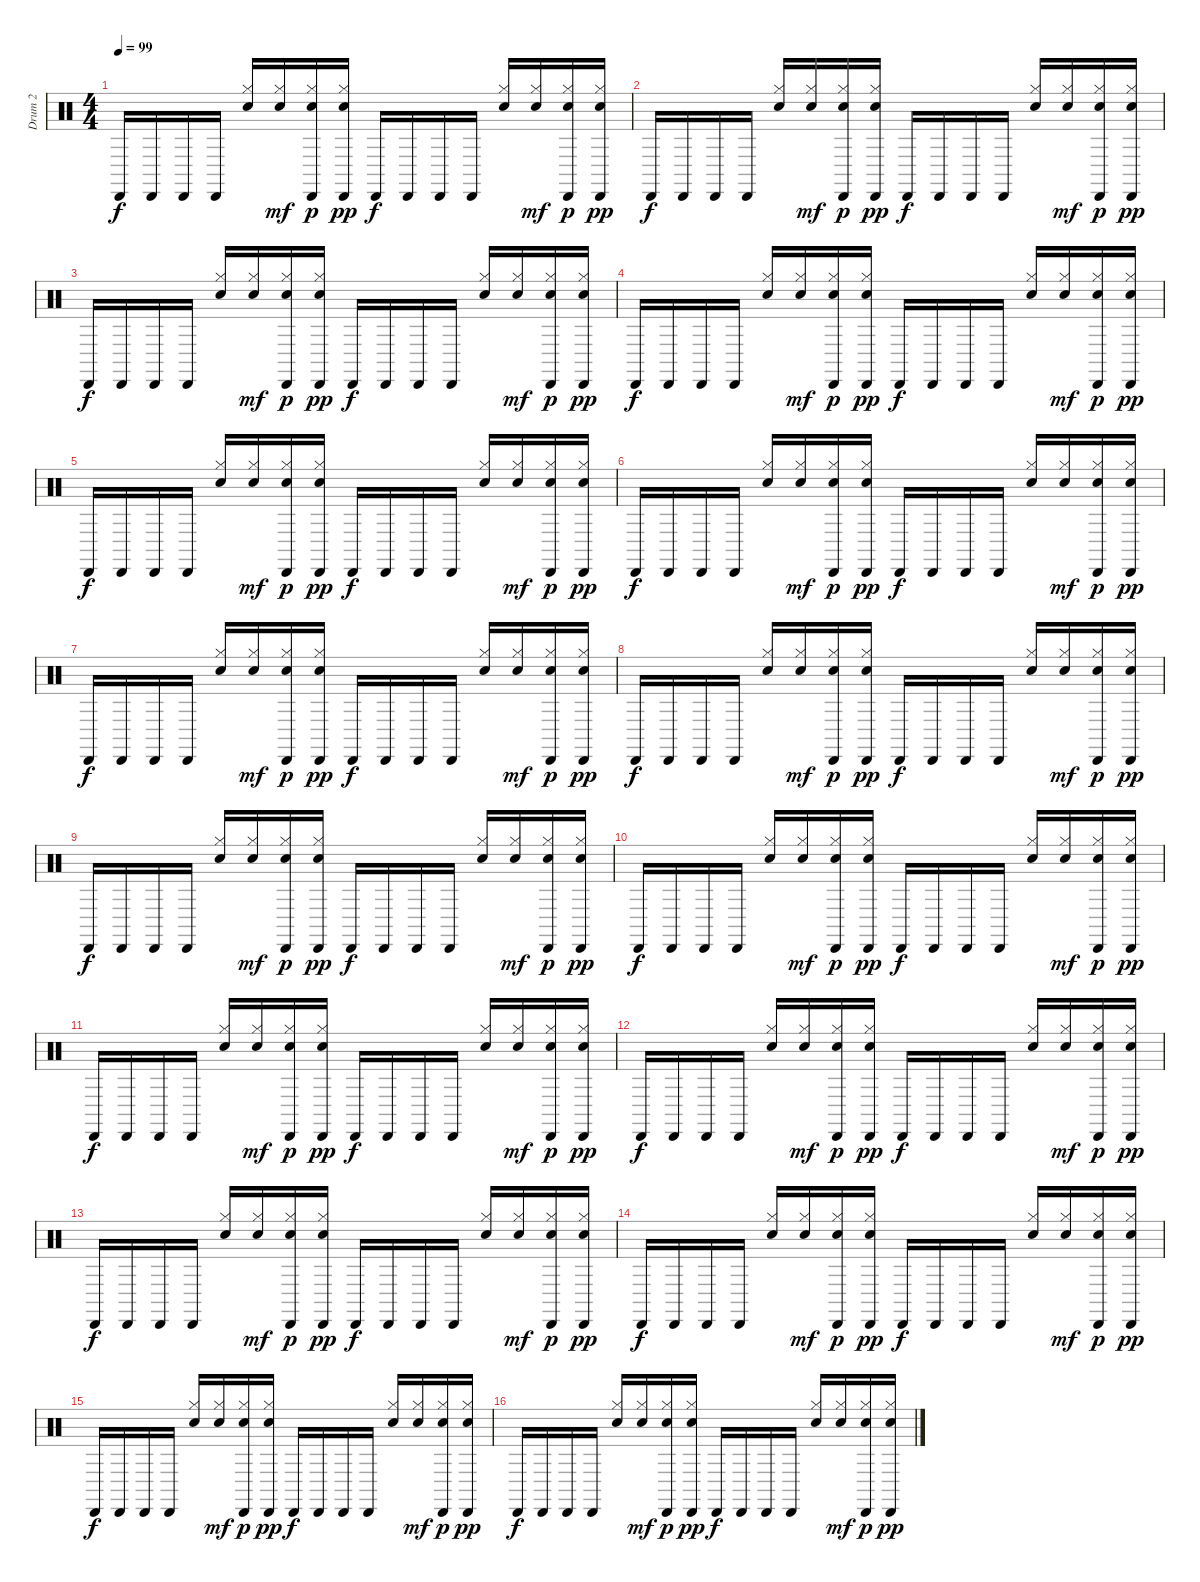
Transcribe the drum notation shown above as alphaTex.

\track ("Drum 2" "Drum 2") {instrument percussion}
\staff {score}
\articulation defaults
\ts (4 4)
\tempo 99
\clef neutral
\ks c "Cabasa (hit)".16{dy f} "Cabasa (hit)".16 "Cabasa (hit)".16 "Cabasa (hit)".16
("Electric Snare (hit)" "Hi-Hat (closed)").16 ("Electric Snare (hit)" "Hi-Hat (closed)").16{dy mf} ("Electric Snare (hit)" "Hi-Hat (closed)" "Cabasa (hit)").16{dy p} ("Electric Snare (hit)" "Hi-Hat (closed)" "Cabasa (hit)").16{dy pp} "Cabasa (hit)".16{dy f} "Cabasa (hit)".16 "Cabasa (hit)".16 "Cabasa (hit)".16 ("Electric Snare (hit)" "Hi-Hat (closed)").16 ("Electric Snare (hit)" "Hi-Hat (closed)").16{dy mf} ("Electric Snare (hit)" "Hi-Hat (closed)" "Cabasa (hit)").16{dy p} ("Electric Snare (hit)" "Hi-Hat (closed)" "Cabasa (hit)").16{dy pp} |
"Cabasa (hit)".16{dy f} "Cabasa (hit)".16 "Cabasa (hit)".16 "Cabasa (hit)".16 ("Electric Snare (hit)" "Hi-Hat (closed)").16 ("Electric Snare (hit)" "Hi-Hat (closed)").16{dy mf} ("Electric Snare (hit)" "Hi-Hat (closed)" "Cabasa (hit)").16{dy p} ("Electric Snare (hit)" "Hi-Hat (closed)" "Cabasa (hit)").16{dy pp} "Cabasa (hit)".16{dy f} "Cabasa (hit)".16 "Cabasa (hit)".16 "Cabasa (hit)".16 ("Electric Snare (hit)" "Hi-Hat (closed)").16 ("Electric Snare (hit)" "Hi-Hat (closed)").16{dy mf} ("Electric Snare (hit)" "Hi-Hat (closed)" "Cabasa (hit)").16{dy p} ("Electric Snare (hit)" "Hi-Hat (closed)" "Cabasa (hit)").16{dy pp} |
"Cabasa (hit)".16{dy f} "Cabasa (hit)".16 "Cabasa (hit)".16 "Cabasa (hit)".16 ("Electric Snare (hit)" "Hi-Hat (closed)").16 ("Electric Snare (hit)" "Hi-Hat (closed)").16{dy mf} ("Electric Snare (hit)" "Hi-Hat (closed)" "Cabasa (hit)").16{dy p} ("Electric Snare (hit)" "Hi-Hat (closed)" "Cabasa (hit)").16{dy pp} "Cabasa (hit)".16{dy f} "Cabasa (hit)".16 "Cabasa (hit)".16 "Cabasa (hit)".16 ("Electric Snare (hit)" "Hi-Hat (closed)").16 ("Electric Snare (hit)" "Hi-Hat (closed)").16{dy mf} ("Electric Snare (hit)" "Hi-Hat (closed)" "Cabasa (hit)").16{dy p} ("Electric Snare (hit)" "Hi-Hat (closed)" "Cabasa (hit)").16{dy pp} |
"Cabasa (hit)".16{dy f} "Cabasa (hit)".16 "Cabasa (hit)".16 "Cabasa (hit)".16 ("Electric Snare (hit)" "Hi-Hat (closed)").16 ("Electric Snare (hit)" "Hi-Hat (closed)").16{dy mf} ("Electric Snare (hit)" "Hi-Hat (closed)" "Cabasa (hit)").16{dy p} ("Electric Snare (hit)" "Hi-Hat (closed)" "Cabasa (hit)").16{dy pp} "Cabasa (hit)".16{dy f} "Cabasa (hit)".16 "Cabasa (hit)".16 "Cabasa (hit)".16 ("Electric Snare (hit)" "Hi-Hat (closed)").16 ("Electric Snare (hit)" "Hi-Hat (closed)").16{dy mf} ("Electric Snare (hit)" "Hi-Hat (closed)" "Cabasa (hit)").16{dy p} ("Electric Snare (hit)" "Hi-Hat (closed)" "Cabasa (hit)").16{dy pp} |
"Cabasa (hit)".16{dy f} "Cabasa (hit)".16 "Cabasa (hit)".16 "Cabasa (hit)".16 ("Electric Snare (hit)" "Hi-Hat (closed)").16 ("Electric Snare (hit)" "Hi-Hat (closed)").16{dy mf} ("Electric Snare (hit)" "Hi-Hat (closed)" "Cabasa (hit)").16{dy p} ("Electric Snare (hit)" "Hi-Hat (closed)" "Cabasa (hit)").16{dy pp} "Cabasa (hit)".16{dy f} "Cabasa (hit)".16 "Cabasa (hit)".16 "Cabasa (hit)".16 ("Electric Snare (hit)" "Hi-Hat (closed)").16 ("Electric Snare (hit)" "Hi-Hat (closed)").16{dy mf} ("Electric Snare (hit)" "Hi-Hat (closed)" "Cabasa (hit)").16{dy p} ("Electric Snare (hit)" "Hi-Hat (closed)" "Cabasa (hit)").16{dy pp} |
"Cabasa (hit)".16{dy f} "Cabasa (hit)".16 "Cabasa (hit)".16 "Cabasa (hit)".16 ("Electric Snare (hit)" "Hi-Hat (closed)").16 ("Electric Snare (hit)" "Hi-Hat (closed)").16{dy mf} ("Electric Snare (hit)" "Hi-Hat (closed)" "Cabasa (hit)").16{dy p} ("Electric Snare (hit)" "Hi-Hat (closed)" "Cabasa (hit)").16{dy pp} "Cabasa (hit)".16{dy f} "Cabasa (hit)".16 "Cabasa (hit)".16 "Cabasa (hit)".16 ("Electric Snare (hit)" "Hi-Hat (closed)").16 ("Electric Snare (hit)" "Hi-Hat (closed)").16{dy mf} ("Electric Snare (hit)" "Hi-Hat (closed)" "Cabasa (hit)").16{dy p} ("Electric Snare (hit)" "Hi-Hat (closed)" "Cabasa (hit)").16{dy pp} |
"Cabasa (hit)".16{dy f} "Cabasa (hit)".16 "Cabasa (hit)".16 "Cabasa (hit)".16 ("Electric Snare (hit)" "Hi-Hat (closed)").16 ("Electric Snare (hit)" "Hi-Hat (closed)").16{dy mf} ("Electric Snare (hit)" "Hi-Hat (closed)" "Cabasa (hit)").16{dy p} ("Electric Snare (hit)" "Hi-Hat (closed)" "Cabasa (hit)").16{dy pp} "Cabasa (hit)".16{dy f} "Cabasa (hit)".16 "Cabasa (hit)".16 "Cabasa (hit)".16 ("Electric Snare (hit)" "Hi-Hat (closed)").16 ("Electric Snare (hit)" "Hi-Hat (closed)").16{dy mf} ("Electric Snare (hit)" "Hi-Hat (closed)" "Cabasa (hit)").16{dy p} ("Electric Snare (hit)" "Hi-Hat (closed)" "Cabasa (hit)").16{dy pp} |
"Cabasa (hit)".16{dy f} "Cabasa (hit)".16 "Cabasa (hit)".16 "Cabasa (hit)".16 ("Electric Snare (hit)" "Hi-Hat (closed)").16 ("Electric Snare (hit)" "Hi-Hat (closed)").16{dy mf} ("Electric Snare (hit)" "Hi-Hat (closed)" "Cabasa (hit)").16{dy p} ("Electric Snare (hit)" "Hi-Hat (closed)" "Cabasa (hit)").16{dy pp} "Cabasa (hit)".16{dy f} "Cabasa (hit)".16 "Cabasa (hit)".16 "Cabasa (hit)".16 ("Electric Snare (hit)" "Hi-Hat (closed)").16 ("Electric Snare (hit)" "Hi-Hat (closed)").16{dy mf} ("Electric Snare (hit)" "Hi-Hat (closed)" "Cabasa (hit)").16{dy p} ("Electric Snare (hit)" "Hi-Hat (closed)" "Cabasa (hit)").16{dy pp} |
"Cabasa (hit)".16{dy f} "Cabasa (hit)".16 "Cabasa (hit)".16 "Cabasa (hit)".16 ("Electric Snare (hit)" "Hi-Hat (closed)").16 ("Electric Snare (hit)" "Hi-Hat (closed)").16{dy mf} ("Electric Snare (hit)" "Hi-Hat (closed)" "Cabasa (hit)").16{dy p} ("Electric Snare (hit)" "Hi-Hat (closed)" "Cabasa (hit)").16{dy pp} "Cabasa (hit)".16{dy f} "Cabasa (hit)".16 "Cabasa (hit)".16 "Cabasa (hit)".16 ("Electric Snare (hit)" "Hi-Hat (closed)").16 ("Electric Snare (hit)" "Hi-Hat (closed)").16{dy mf} ("Electric Snare (hit)" "Hi-Hat (closed)" "Cabasa (hit)").16{dy p} ("Electric Snare (hit)" "Hi-Hat (closed)" "Cabasa (hit)").16{dy pp} |
"Cabasa (hit)".16{dy f} "Cabasa (hit)".16 "Cabasa (hit)".16 "Cabasa (hit)".16{volume 15} ("Electric Snare (hit)" "Hi-Hat (closed)").16 ("Electric Snare (hit)" "Hi-Hat (closed)").16{dy mf} ("Electric Snare (hit)" "Hi-Hat (closed)" "Cabasa (hit)").16{dy p} ("Electric Snare (hit)" "Hi-Hat (closed)" "Cabasa (hit)").16{dy pp} "Cabasa (hit)".16{dy f} "Cabasa (hit)".16 "Cabasa (hit)".16 "Cabasa (hit)".16 ("Electric Snare (hit)" "Hi-Hat (closed)").16 ("Electric Snare (hit)" "Hi-Hat (closed)").16{dy mf} ("Electric Snare (hit)" "Hi-Hat (closed)" "Cabasa (hit)").16{dy p} ("Electric Snare (hit)" "Hi-Hat (closed)" "Cabasa (hit)").16{dy pp} |
"Cabasa (hit)".16{dy f} "Cabasa (hit)".16 "Cabasa (hit)".16 "Cabasa (hit)".16 ("Electric Snare (hit)" "Hi-Hat (closed)").16 ("Electric Snare (hit)" "Hi-Hat (closed)").16{dy mf} ("Electric Snare (hit)" "Hi-Hat (closed)" "Cabasa (hit)").16{dy p} ("Electric Snare (hit)" "Hi-Hat (closed)" "Cabasa (hit)").16{dy pp} "Cabasa (hit)".16{dy f} "Cabasa (hit)".16 "Cabasa (hit)".16 "Cabasa (hit)".16 ("Electric Snare (hit)" "Hi-Hat (closed)").16 ("Electric Snare (hit)" "Hi-Hat (closed)").16{dy mf} ("Electric Snare (hit)" "Hi-Hat (closed)" "Cabasa (hit)").16{dy p} ("Electric Snare (hit)" "Hi-Hat (closed)" "Cabasa (hit)").16{dy pp} |
"Cabasa (hit)".16{dy f} "Cabasa (hit)".16 "Cabasa (hit)".16 "Cabasa (hit)".16 ("Electric Snare (hit)" "Hi-Hat (closed)").16 ("Electric Snare (hit)" "Hi-Hat (closed)").16{dy mf} ("Electric Snare (hit)" "Hi-Hat (closed)" "Cabasa (hit)").16{dy p} ("Electric Snare (hit)" "Hi-Hat (closed)" "Cabasa (hit)").16{dy pp} "Cabasa (hit)".16{dy f} "Cabasa (hit)".16 "Cabasa (hit)".16 "Cabasa (hit)".16 ("Electric Snare (hit)" "Hi-Hat (closed)").16 ("Electric Snare (hit)" "Hi-Hat (closed)").16{dy mf} ("Electric Snare (hit)" "Hi-Hat (closed)" "Cabasa (hit)").16{dy p} ("Electric Snare (hit)" "Hi-Hat (closed)" "Cabasa (hit)").16{dy pp} |
"Cabasa (hit)".16{dy f} "Cabasa (hit)".16 "Cabasa (hit)".16 "Cabasa (hit)".16 ("Electric Snare (hit)" "Hi-Hat (closed)").16 ("Electric Snare (hit)" "Hi-Hat (closed)").16{dy mf} ("Electric Snare (hit)" "Hi-Hat (closed)" "Cabasa (hit)").16{dy p} ("Electric Snare (hit)" "Hi-Hat (closed)" "Cabasa (hit)").16{dy pp} "Cabasa (hit)".16{dy f} "Cabasa (hit)".16 "Cabasa (hit)".16 "Cabasa (hit)".16 ("Electric Snare (hit)" "Hi-Hat (closed)").16 ("Electric Snare (hit)" "Hi-Hat (closed)").16{dy mf} ("Electric Snare (hit)" "Hi-Hat (closed)" "Cabasa (hit)").16{dy p} ("Electric Snare (hit)" "Hi-Hat (closed)" "Cabasa (hit)").16{dy pp} |
"Cabasa (hit)".16{dy f} "Cabasa (hit)".16 "Cabasa (hit)".16 "Cabasa (hit)".16 ("Electric Snare (hit)" "Hi-Hat (closed)").16 ("Electric Snare (hit)" "Hi-Hat (closed)").16{dy mf} ("Electric Snare (hit)" "Hi-Hat (closed)" "Cabasa (hit)").16{dy p} ("Electric Snare (hit)" "Hi-Hat (closed)" "Cabasa (hit)").16{dy pp} "Cabasa (hit)".16{dy f} "Cabasa (hit)".16 "Cabasa (hit)".16 "Cabasa (hit)".16 ("Electric Snare (hit)" "Hi-Hat (closed)").16 ("Electric Snare (hit)" "Hi-Hat (closed)").16{dy mf} ("Electric Snare (hit)" "Hi-Hat (closed)" "Cabasa (hit)").16{dy p} ("Electric Snare (hit)" "Hi-Hat (closed)" "Cabasa (hit)").16{dy pp} |
"Cabasa (hit)".16{dy f} "Cabasa (hit)".16 "Cabasa (hit)".16 "Cabasa (hit)".16 ("Electric Snare (hit)" "Hi-Hat (closed)").16 ("Electric Snare (hit)" "Hi-Hat (closed)").16{dy mf} ("Electric Snare (hit)" "Hi-Hat (closed)" "Cabasa (hit)").16{dy p} ("Electric Snare (hit)" "Hi-Hat (closed)" "Cabasa (hit)").16{dy pp} "Cabasa (hit)".16{dy f} "Cabasa (hit)".16 "Cabasa (hit)".16 "Cabasa (hit)".16 ("Electric Snare (hit)" "Hi-Hat (closed)").16 ("Electric Snare (hit)" "Hi-Hat (closed)").16{dy mf} ("Electric Snare (hit)" "Hi-Hat (closed)" "Cabasa (hit)").16{dy p} ("Electric Snare (hit)" "Hi-Hat (closed)" "Cabasa (hit)").16{dy pp} |
"Cabasa (hit)".16{dy f} "Cabasa (hit)".16 "Cabasa (hit)".16 "Cabasa (hit)".16 ("Electric Snare (hit)" "Hi-Hat (closed)").16 ("Electric Snare (hit)" "Hi-Hat (closed)").16{dy mf} ("Electric Snare (hit)" "Hi-Hat (closed)" "Cabasa (hit)").16{dy p} ("Electric Snare (hit)" "Hi-Hat (closed)" "Cabasa (hit)").16{dy pp} "Cabasa (hit)".16{dy f} "Cabasa (hit)".16 "Cabasa (hit)".16 "Cabasa (hit)".16 ("Electric Snare (hit)" "Hi-Hat (closed)").16 ("Electric Snare (hit)" "Hi-Hat (closed)").16{dy mf} ("Electric Snare (hit)" "Hi-Hat (closed)" "Cabasa (hit)").16{dy p} ("Electric Snare (hit)" "Hi-Hat (closed)" "Cabasa (hit)").16{dy pp}
